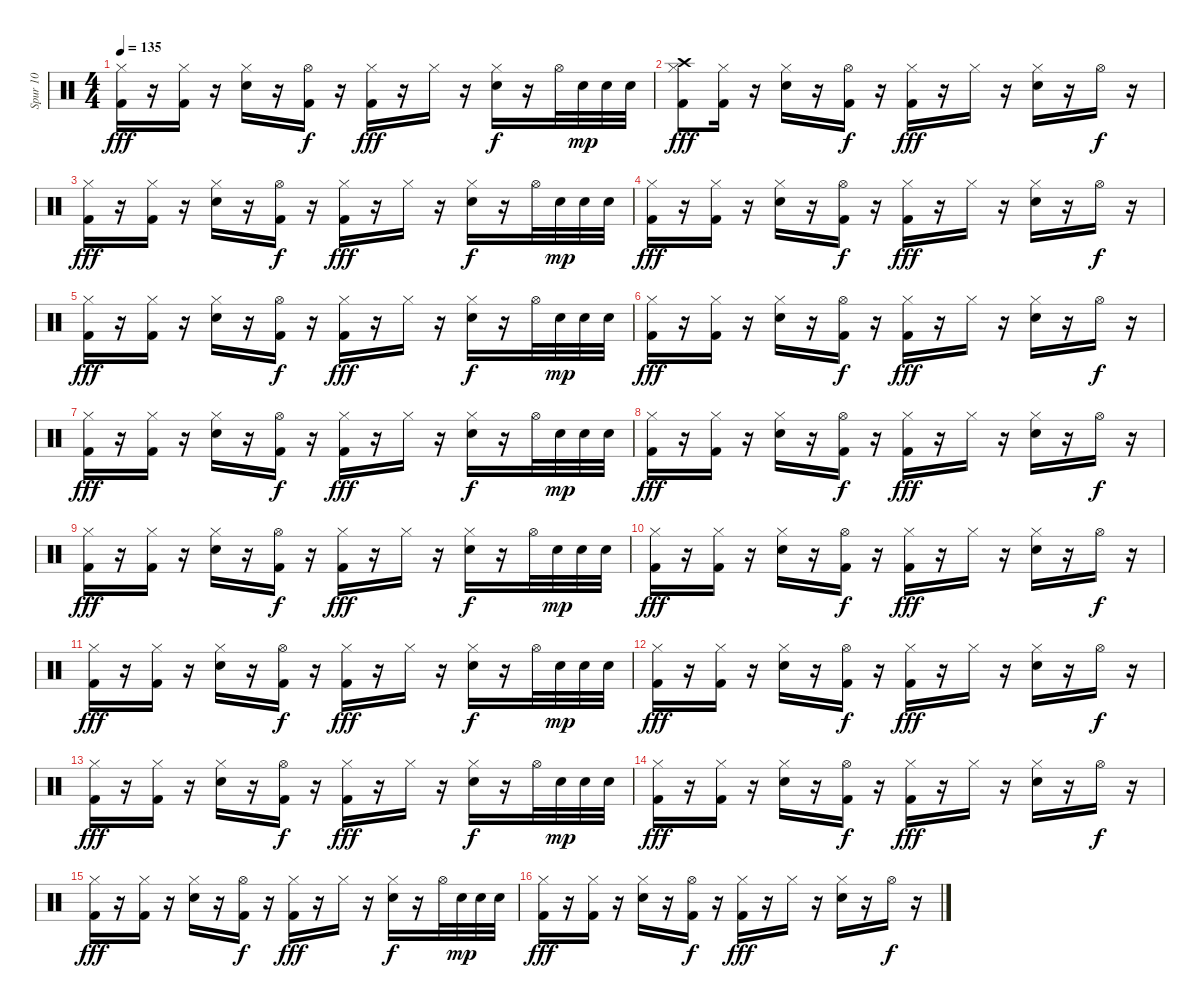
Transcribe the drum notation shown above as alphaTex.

\track ("Spur 10" "Spur 10") {instrument percussion}
\staff {score}
\articulation defaults
\ts (4 4)
\tempo 135
\clef neutral
\ks c
("Hi-Hat (closed)" "Kick (hit) 2").16{dy fff} r.16 ("Hi-Hat (closed)" "Kick (hit) 2").16 r.16 ("Hi-Hat (closed)" "Electric Snare (hit)").16 r.16 ("Hi-Hat (open)" "Kick (hit) 2").16{dy f} r.16 ("Hi-Hat (closed)" "Kick (hit) 2").16{dy fff} r.16 "Hi-Hat (closed)".16 r.16 ("Electric Snare (hit)" "Hi-Hat (closed)").16{dy f} r.16 "Hi-Hat (open)".32 "Snare (hit) 2".32{dy mp} "Snare (hit) 2".32 "Snare (hit) 2".32 |
("Crash high (hit)" "Hi-Hat (closed)" "Kick (hit) 2").8{dy fff} ("Hi-Hat (closed)" "Kick (hit) 2").16 r.16 ("Hi-Hat (closed)" "Electric Snare (hit)").16 r.16 ("Hi-Hat (open)" "Kick (hit) 2").16{dy f} r.16 ("Hi-Hat (closed)" "Kick (hit) 2").16{dy fff} r.16 "Hi-Hat (closed)".16 r.16 ("Hi-Hat (closed)" "Electric Snare (hit)").16 r.16 "Hi-Hat (open)".16{dy f} r.16 |
("Hi-Hat (closed)" "Kick (hit) 2").16{dy fff} r.16 ("Hi-Hat (closed)" "Kick (hit) 2").16 r.16 ("Hi-Hat (closed)" "Electric Snare (hit)").16 r.16 ("Hi-Hat (open)" "Kick (hit) 2").16{dy f} r.16 ("Hi-Hat (closed)" "Kick (hit) 2").16{dy fff} r.16 "Hi-Hat (closed)".16 r.16 ("Electric Snare (hit)" "Hi-Hat (closed)").16{dy f} r.16 "Hi-Hat (open)".32 "Snare (hit) 2".32{dy mp} "Snare (hit) 2".32 "Snare (hit) 2".32 |
("Hi-Hat (closed)" "Kick (hit) 2").16{dy fff} r.16 ("Hi-Hat (closed)" "Kick (hit) 2").16 r.16 ("Hi-Hat (closed)" "Electric Snare (hit)").16 r.16 ("Hi-Hat (open)" "Kick (hit) 2").16{dy f} r.16 ("Hi-Hat (closed)" "Kick (hit) 2").16{dy fff} r.16 "Hi-Hat (closed)".16 r.16 ("Hi-Hat (closed)" "Electric Snare (hit)").16 r.16 "Hi-Hat (open)".16{dy f} r.16 |
("Hi-Hat (closed)" "Kick (hit) 2").16{dy fff} r.16 ("Hi-Hat (closed)" "Kick (hit) 2").16 r.16 ("Hi-Hat (closed)" "Electric Snare (hit)").16 r.16 ("Hi-Hat (open)" "Kick (hit) 2").16{dy f} r.16 ("Hi-Hat (closed)" "Kick (hit) 2").16{dy fff} r.16 "Hi-Hat (closed)".16 r.16 ("Electric Snare (hit)" "Hi-Hat (closed)").16{dy f} r.16 "Hi-Hat (open)".32 "Snare (hit) 2".32{dy mp} "Snare (hit) 2".32 "Snare (hit) 2".32 |
("Hi-Hat (closed)" "Kick (hit) 2").16{dy fff} r.16 ("Hi-Hat (closed)" "Kick (hit) 2").16 r.16 ("Hi-Hat (closed)" "Electric Snare (hit)").16 r.16 ("Hi-Hat (open)" "Kick (hit) 2").16{dy f} r.16 ("Hi-Hat (closed)" "Kick (hit) 2").16{dy fff} r.16 "Hi-Hat (closed)".16 r.16 ("Hi-Hat (closed)" "Electric Snare (hit)").16 r.16 "Hi-Hat (open)".16{dy f} r.16 |
("Hi-Hat (closed)" "Kick (hit) 2").16{dy fff} r.16 ("Hi-Hat (closed)" "Kick (hit) 2").16 r.16 ("Hi-Hat (closed)" "Electric Snare (hit)").16 r.16 ("Hi-Hat (open)" "Kick (hit) 2").16{dy f} r.16 ("Hi-Hat (closed)" "Kick (hit) 2").16{dy fff} r.16 "Hi-Hat (closed)".16 r.16 ("Electric Snare (hit)" "Hi-Hat (closed)").16{dy f} r.16 "Hi-Hat (open)".32 "Snare (hit) 2".32{dy mp} "Snare (hit) 2".32 "Snare (hit) 2".32 |
("Hi-Hat (closed)" "Kick (hit) 2").16{dy fff} r.16 ("Hi-Hat (closed)" "Kick (hit) 2").16 r.16 ("Hi-Hat (closed)" "Electric Snare (hit)").16 r.16 ("Hi-Hat (open)" "Kick (hit) 2").16{dy f} r.16 ("Hi-Hat (closed)" "Kick (hit) 2").16{dy fff} r.16 "Hi-Hat (closed)".16 r.16 ("Hi-Hat (closed)" "Electric Snare (hit)").16 r.16 "Hi-Hat (open)".16{dy f} r.16 |
("Hi-Hat (closed)" "Kick (hit) 2").16{dy fff} r.16 ("Hi-Hat (closed)" "Kick (hit) 2").16 r.16 ("Hi-Hat (closed)" "Electric Snare (hit)").16 r.16 ("Hi-Hat (open)" "Kick (hit) 2").16{dy f} r.16 ("Hi-Hat (closed)" "Kick (hit) 2").16{dy fff} r.16 "Hi-Hat (closed)".16 r.16 ("Electric Snare (hit)" "Hi-Hat (closed)").16{dy f} r.16 "Hi-Hat (open)".32 "Snare (hit) 2".32{dy mp} "Snare (hit) 2".32 "Snare (hit) 2".32 |
("Hi-Hat (closed)" "Kick (hit) 2").16{dy fff} r.16 ("Hi-Hat (closed)" "Kick (hit) 2").16 r.16 ("Hi-Hat (closed)" "Electric Snare (hit)").16 r.16 ("Hi-Hat (open)" "Kick (hit) 2").16{dy f} r.16 ("Hi-Hat (closed)" "Kick (hit) 2").16{dy fff} r.16 "Hi-Hat (closed)".16 r.16 ("Hi-Hat (closed)" "Electric Snare (hit)").16 r.16 "Hi-Hat (open)".16{dy f} r.16 |
("Hi-Hat (closed)" "Kick (hit) 2").16{dy fff} r.16 ("Hi-Hat (closed)" "Kick (hit) 2").16 r.16 ("Hi-Hat (closed)" "Electric Snare (hit)").16 r.16 ("Hi-Hat (open)" "Kick (hit) 2").16{dy f} r.16 ("Hi-Hat (closed)" "Kick (hit) 2").16{dy fff} r.16 "Hi-Hat (closed)".16 r.16 ("Electric Snare (hit)" "Hi-Hat (closed)").16{dy f} r.16 "Hi-Hat (open)".32 "Snare (hit) 2".32{dy mp} "Snare (hit) 2".32 "Snare (hit) 2".32 |
("Hi-Hat (closed)" "Kick (hit) 2").16{dy fff} r.16 ("Hi-Hat (closed)" "Kick (hit) 2").16 r.16 ("Hi-Hat (closed)" "Electric Snare (hit)").16 r.16 ("Hi-Hat (open)" "Kick (hit) 2").16{dy f} r.16 ("Hi-Hat (closed)" "Kick (hit) 2").16{dy fff} r.16 "Hi-Hat (closed)".16 r.16 ("Hi-Hat (closed)" "Electric Snare (hit)").16 r.16 "Hi-Hat (open)".16{dy f} r.16 |
("Hi-Hat (closed)" "Kick (hit) 2").16{dy fff} r.16 ("Hi-Hat (closed)" "Kick (hit) 2").16 r.16 ("Hi-Hat (closed)" "Electric Snare (hit)").16 r.16 ("Hi-Hat (open)" "Kick (hit) 2").16{dy f} r.16 ("Hi-Hat (closed)" "Kick (hit) 2").16{dy fff} r.16 "Hi-Hat (closed)".16 r.16 ("Electric Snare (hit)" "Hi-Hat (closed)").16{dy f} r.16 "Hi-Hat (open)".32 "Snare (hit) 2".32{dy mp} "Snare (hit) 2".32 "Snare (hit) 2".32 |
("Hi-Hat (closed)" "Kick (hit) 2").16{dy fff} r.16 ("Hi-Hat (closed)" "Kick (hit) 2").16 r.16 ("Hi-Hat (closed)" "Electric Snare (hit)").16 r.16 ("Hi-Hat (open)" "Kick (hit) 2").16{dy f} r.16 ("Hi-Hat (closed)" "Kick (hit) 2").16{dy fff} r.16 "Hi-Hat (closed)".16 r.16 ("Hi-Hat (closed)" "Electric Snare (hit)").16 r.16 "Hi-Hat (open)".16{dy f} r.16 |
("Hi-Hat (closed)" "Kick (hit) 2").16{dy fff} r.16 ("Hi-Hat (closed)" "Kick (hit) 2").16 r.16 ("Hi-Hat (closed)" "Electric Snare (hit)").16 r.16 ("Hi-Hat (open)" "Kick (hit) 2").16{dy f} r.16 ("Hi-Hat (closed)" "Kick (hit) 2").16{dy fff} r.16 "Hi-Hat (closed)".16 r.16 ("Electric Snare (hit)" "Hi-Hat (closed)").16{dy f} r.16 "Hi-Hat (open)".32 "Snare (hit) 2".32{dy mp} "Snare (hit) 2".32 "Snare (hit) 2".32 |
("Hi-Hat (closed)" "Kick (hit) 2").16{dy fff} r.16 ("Hi-Hat (closed)" "Kick (hit) 2").16 r.16 ("Hi-Hat (closed)" "Electric Snare (hit)").16 r.16 ("Hi-Hat (open)" "Kick (hit) 2").16{dy f} r.16 ("Hi-Hat (closed)" "Kick (hit) 2").16{dy fff} r.16 "Hi-Hat (closed)".16 r.16 ("Hi-Hat (closed)" "Electric Snare (hit)").16 r.16 "Hi-Hat (open)".16{dy f} r.16
